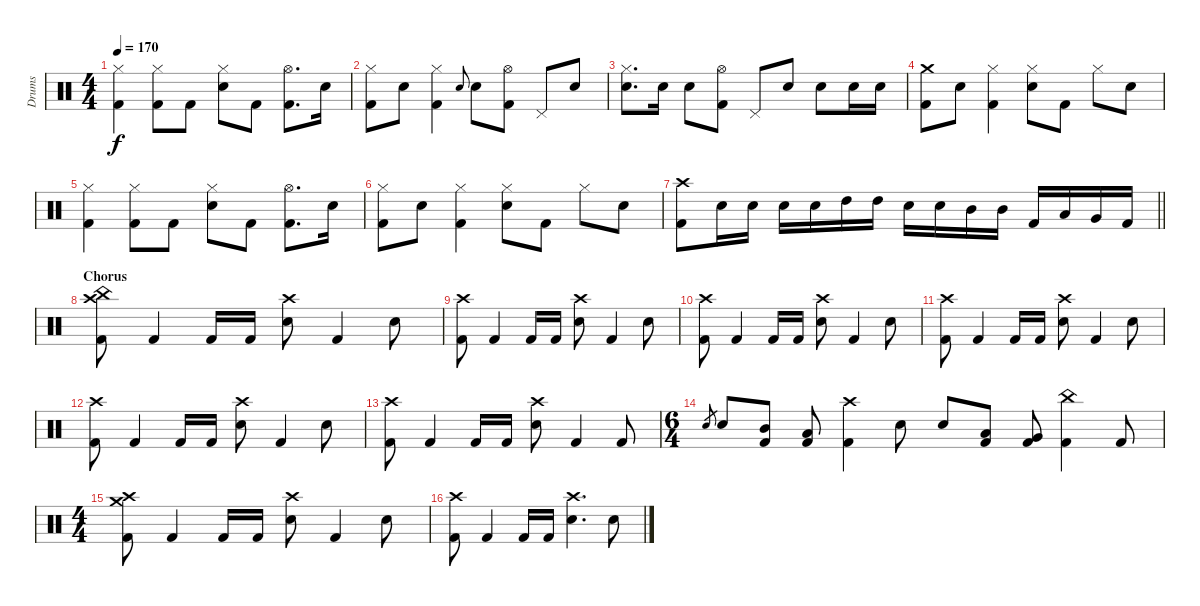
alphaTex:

\track ("Drums" "Drums") {instrument percussion}
\staff {score}
\articulation defaults
\ts (4 4)
\tempo 170
\clef neutral
\ks c
("Hi-Hat (closed)" "Kick (hit) 2").4{dy f} ("Hi-Hat (closed)" "Kick (hit) 2").8 "Kick (hit) 2".8 ("Hi-Hat (closed)" "Electric Snare (hit)").8 "Kick (hit) 2".8 ("Hi-Hat (open)" "Kick (hit) 2").8{d} "Electric Snare (hit)".16 |
("Hi-Hat (closed)" "Kick (hit) 2").8 "Electric Snare (hit)".8 ("Hi-Hat (closed)" "Kick (hit) 2").4 "Electric Snare (hit)".8{gr onbeat} "Electric Snare (hit)".8 ("Hi-Hat (open)" "Kick (hit) 2").8 "Pedal Hi-Hat (hit)".8 "Electric Snare (hit)".8 |
("Hi-Hat (closed)" "Electric Snare (hit)").8{d} "Electric Snare (hit)".16 "Electric Snare (hit)".8 ("Hi-Hat (open)" "Kick (hit) 2").8 "Pedal Hi-Hat (hit)".8 "Electric Snare (hit)".8 "Electric Snare (hit)".8 "Electric Snare (hit)".16 "Electric Snare (hit)".16 |
("Crash medium (hit)" "Kick (hit) 2").8 "Electric Snare (hit)".8 ("Hi-Hat (closed)" "Kick (hit) 2").4 ("Hi-Hat (closed)" "Electric Snare (hit)").8 "Kick (hit) 2".8 "Hi-Hat (closed)".8 "Electric Snare (hit)".8 |
("Hi-Hat (closed)" "Kick (hit) 2").4 ("Hi-Hat (closed)" "Kick (hit) 2").8 "Kick (hit) 2".8 ("Hi-Hat (closed)" "Electric Snare (hit)").8 "Kick (hit) 2".8 ("Hi-Hat (open)" "Kick (hit) 2").8{d} "Electric Snare (hit)".16 |
("Hi-Hat (closed)" "Kick (hit) 2").8 "Electric Snare (hit)".8 ("Hi-Hat (closed)" "Kick (hit) 2").4 ("Hi-Hat (closed)" "Electric Snare (hit)").8 "Kick (hit) 2".8 "Hi-Hat (closed)".8 "Electric Snare (hit)".8 |
\barLineRight lightlight
("Crash high (hit)" "Kick (hit) 2").8 "Electric Snare (hit)".16 "Electric Snare (hit)".16 "Electric Snare (hit)".16 "Electric Snare (hit)".16 "High Tom (hit)".16 "High Tom (hit)".16 "Electric Snare (hit)".16 "Electric Snare (hit)".16 "Mid Tom (hit)".16 "Mid Tom (hit)".16 "Kick (hit) 2".16 "Low Tom (hit)".16 "Very Low Tom (hit)".16 "Kick (hit) 2".16 |
\section ("" "Chorus")
("Crash high (hit)" "China (hit)" "Kick (hit) 2").8 "Kick (hit) 2".4 "Kick (hit) 2".16 "Kick (hit) 2".16 ("Crash high (hit)" "Electric Snare (hit)").8 "Kick (hit) 2".4 "Electric Snare (hit)".8 |
("Crash high (hit)" "Kick (hit) 2").8 "Kick (hit) 2".4 "Kick (hit) 2".16 "Kick (hit) 2".16 ("Crash high (hit)" "Electric Snare (hit)").8 "Kick (hit) 2".4 "Electric Snare (hit)".8 |
("Crash high (hit)" "Kick (hit) 2").8 "Kick (hit) 2".4 "Kick (hit) 2".16 "Kick (hit) 2".16 ("Crash high (hit)" "Electric Snare (hit)").8 "Kick (hit) 2".4 "Electric Snare (hit)".8 |
("Crash high (hit)" "Kick (hit) 2").8 "Kick (hit) 2".4 "Kick (hit) 2".16 "Kick (hit) 2".16 ("Crash high (hit)" "Electric Snare (hit)").8 "Kick (hit) 2".4 "Electric Snare (hit)".8 |
("Crash high (hit)" "Kick (hit) 2").8 "Kick (hit) 2".4 "Kick (hit) 2".16 "Kick (hit) 2".16 ("Crash high (hit)" "Electric Snare (hit)").8 "Kick (hit) 2".4 "Electric Snare (hit)".8 |
("Crash high (hit)" "Kick (hit) 2").8 "Kick (hit) 2".4 "Kick (hit) 2".16 "Kick (hit) 2".16 ("Crash high (hit)" "Electric Snare (hit)").8 "Kick (hit) 2".4 "Kick (hit) 2".8 |
\ts (6 4)
"Electric Snare (hit)".8{gr} "Electric Snare (hit)".8 ("Mid Tom (hit)" "Kick (hit) 2").8 ("Low Tom (hit)" "Kick (hit) 2").8 ("Crash high (hit)" "Kick (hit) 2").4 "Electric Snare (hit)".8 "Electric Snare (hit)".8 ("Low Tom (hit)" "Kick (hit) 2").8 ("Very Low Tom (hit)" "Kick (hit) 2").8 ("China (hit)" "Kick (hit) 2").4 "Kick (hit) 2".8 |
\ts (4 4)
("Crash high (hit)" "Crash medium (hit)" "Kick (hit) 2").8 "Kick (hit) 2".4 "Kick (hit) 2".16 "Kick (hit) 2".16 ("Crash high (hit)" "Electric Snare (hit)").8 "Kick (hit) 2".4 "Electric Snare (hit)".8 |
("Crash high (hit)" "Kick (hit) 2").8 "Kick (hit) 2".4 "Kick (hit) 2".16 "Kick (hit) 2".16 ("Crash high (hit)" "Electric Snare (hit)").4{d} "Electric Snare (hit)".8
